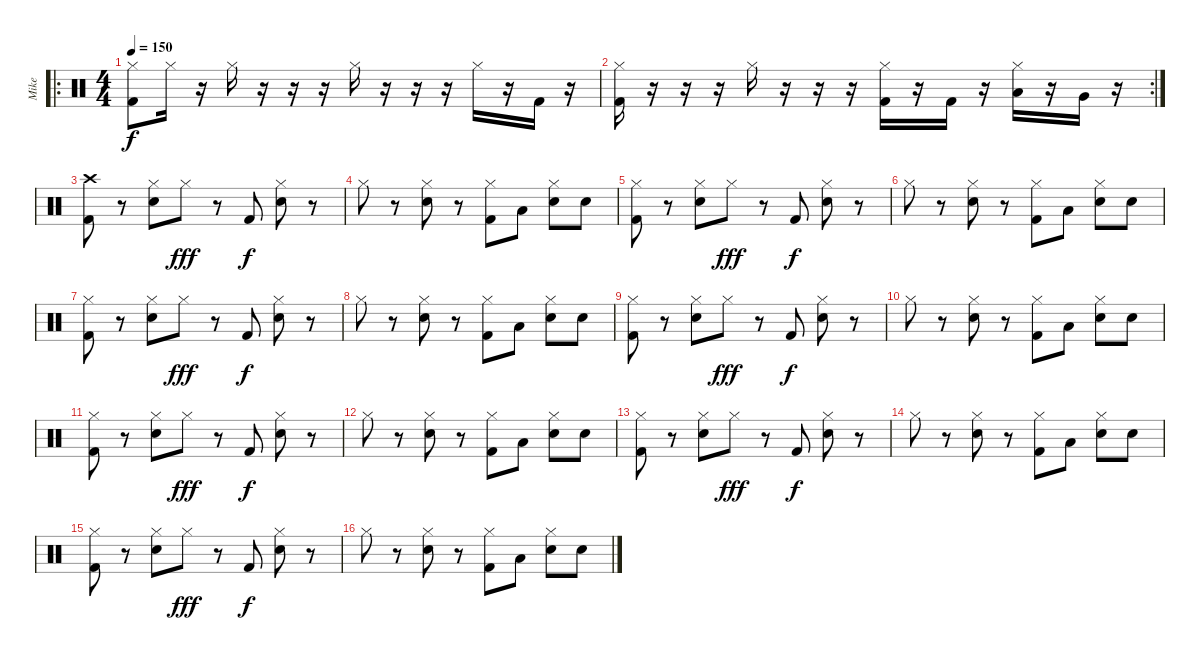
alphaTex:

\track ("Mike" "Mike") {instrument percussion}
\staff {score}
\articulation defaults
\ro
\ts (4 4)
\tempo 150
\clef neutral
\ks c
("Hi-Hat (closed)" "Kick (hit) 2").8{dy f} "Hi-Hat (closed)".16 r.16 "Hi-Hat (closed)".16 r.16 r.16 r.16 "Hi-Hat (closed)".16 r.16 r.16 r.16 "Hi-Hat (closed)".16 r.16 "Kick (hit) 2".16 r.16 |
\rc 2
("Hi-Hat (closed)" "Kick (hit) 2").16 r.16 r.16 r.16 "Hi-Hat (closed)".16 r.16 r.16 r.16 ("Hi-Hat (closed)" "Kick (hit) 2").16 r.16 "Kick (hit) 2".16 r.16 ("Hi-Hat (closed)" "Low Tom (hit)").16 r.16 "Very Low Tom (hit)".16 r.16 |
("Crash high (hit)" "Kick (hit) 2").8 r.8 ("Hi-Hat (closed)" "Snare (hit) 2").8 "Hi-Hat (closed)".8{dy fff} r.8 "Kick (hit) 2".8{dy f} ("Hi-Hat (closed)" "Snare (hit) 2").8 r.8 |
"Hi-Hat (closed)".8 r.8 ("Hi-Hat (closed)" "Snare (hit) 2").8 r.8 ("Hi-Hat (closed)" "Kick (hit) 2").8 "Low Tom (hit)".8 ("Hi-Hat (closed)" "Snare (hit) 2").8 "Snare (hit) 2".8 |
("Hi-Hat (closed)" "Kick (hit) 2").8 r.8 ("Hi-Hat (closed)" "Snare (hit) 2").8 "Hi-Hat (closed)".8{dy fff} r.8 "Kick (hit) 2".8{dy f} ("Hi-Hat (closed)" "Snare (hit) 2").8 r.8 |
"Hi-Hat (closed)".8 r.8 ("Hi-Hat (closed)" "Snare (hit) 2").8 r.8 ("Hi-Hat (closed)" "Kick (hit) 2").8 "Low Tom (hit)".8 ("Hi-Hat (closed)" "Snare (hit) 2").8 "Snare (hit) 2".8 |
("Hi-Hat (closed)" "Kick (hit) 2").8 r.8 ("Hi-Hat (closed)" "Snare (hit) 2").8 "Hi-Hat (closed)".8{dy fff} r.8 "Kick (hit) 2".8{dy f} ("Hi-Hat (closed)" "Snare (hit) 2").8 r.8 |
"Hi-Hat (closed)".8 r.8 ("Hi-Hat (closed)" "Snare (hit) 2").8 r.8 ("Hi-Hat (closed)" "Kick (hit) 2").8 "Low Tom (hit)".8 ("Hi-Hat (closed)" "Snare (hit) 2").8 "Snare (hit) 2".8 |
("Hi-Hat (closed)" "Kick (hit) 2").8 r.8 ("Hi-Hat (closed)" "Snare (hit) 2").8 "Hi-Hat (closed)".8{dy fff} r.8 "Kick (hit) 2".8{dy f} ("Hi-Hat (closed)" "Snare (hit) 2").8 r.8 |
"Hi-Hat (closed)".8 r.8 ("Hi-Hat (closed)" "Snare (hit) 2").8 r.8 ("Hi-Hat (closed)" "Kick (hit) 2").8 "Low Tom (hit)".8 ("Hi-Hat (closed)" "Snare (hit) 2").8 "Snare (hit) 2".8 |
("Hi-Hat (closed)" "Kick (hit) 2").8 r.8 ("Hi-Hat (closed)" "Snare (hit) 2").8 "Hi-Hat (closed)".8{dy fff} r.8 "Kick (hit) 2".8{dy f} ("Hi-Hat (closed)" "Snare (hit) 2").8 r.8 |
"Hi-Hat (closed)".8 r.8 ("Hi-Hat (closed)" "Snare (hit) 2").8 r.8 ("Hi-Hat (closed)" "Kick (hit) 2").8 "Low Tom (hit)".8 ("Hi-Hat (closed)" "Snare (hit) 2").8 "Snare (hit) 2".8 |
("Hi-Hat (closed)" "Kick (hit) 2").8 r.8 ("Hi-Hat (closed)" "Snare (hit) 2").8 "Hi-Hat (closed)".8{dy fff} r.8 "Kick (hit) 2".8{dy f} ("Hi-Hat (closed)" "Snare (hit) 2").8 r.8 |
"Hi-Hat (closed)".8 r.8 ("Hi-Hat (closed)" "Snare (hit) 2").8 r.8 ("Hi-Hat (closed)" "Kick (hit) 2").8 "Low Tom (hit)".8 ("Hi-Hat (closed)" "Snare (hit) 2").8 "Snare (hit) 2".8 |
("Hi-Hat (closed)" "Kick (hit) 2").8 r.8 ("Hi-Hat (closed)" "Snare (hit) 2").8 "Hi-Hat (closed)".8{dy fff} r.8 "Kick (hit) 2".8{dy f} ("Hi-Hat (closed)" "Snare (hit) 2").8 r.8 |
"Hi-Hat (closed)".8 r.8 ("Hi-Hat (closed)" "Snare (hit) 2").8 r.8 ("Hi-Hat (closed)" "Kick (hit) 2").8 "Low Tom (hit)".8 ("Hi-Hat (closed)" "Snare (hit) 2").8 "Snare (hit) 2".8
